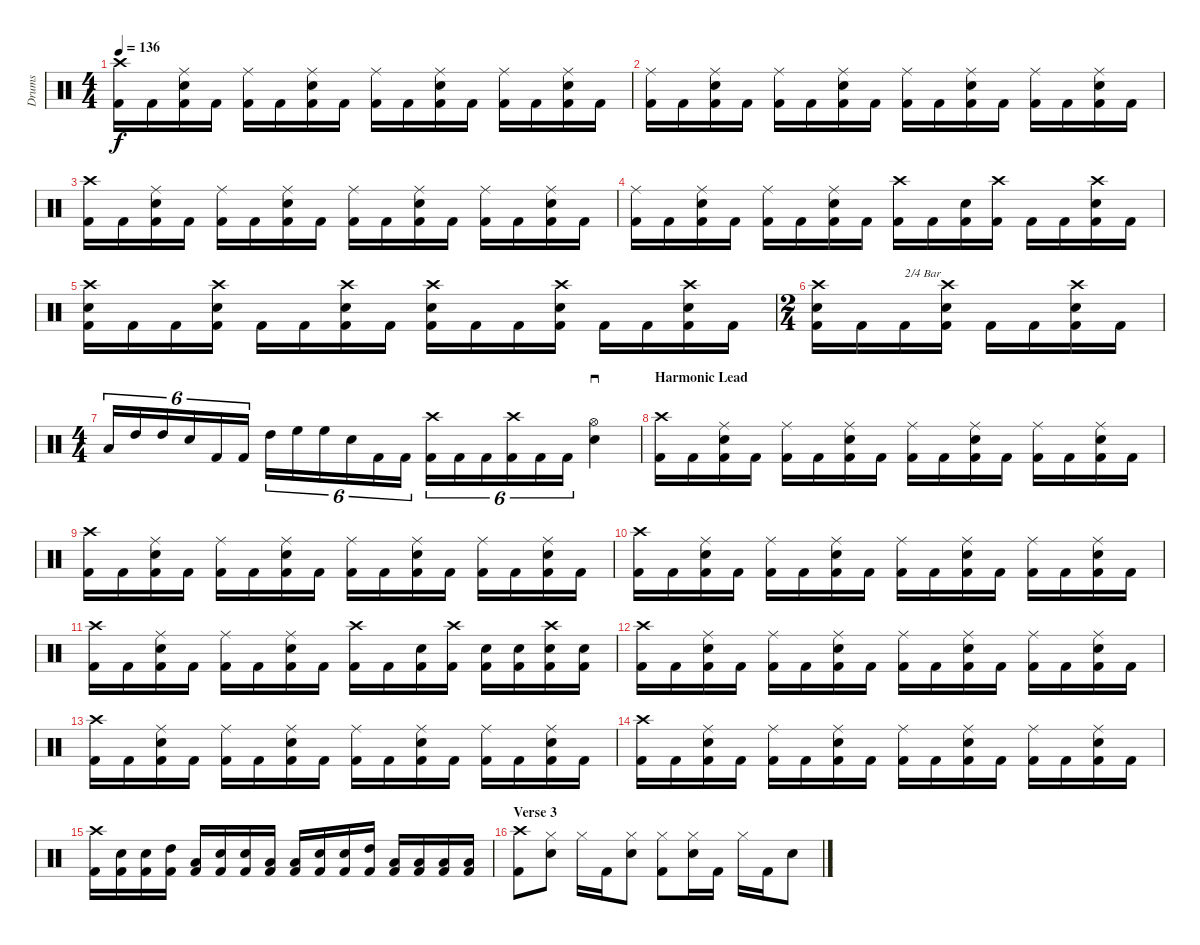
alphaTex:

\track ("Drums" "Drums") {instrument percussion}
\staff {score}
\articulation defaults
\ts (4 4)
\tempo 136
\clef neutral
\ks c
("Crash high (hit)" "Kick (hit) 2").16{dy f} "Kick (hit) 2".16 ("Ride (middle)" "Snare (hit) 2" "Kick (hit) 2").16 "Kick (hit) 2".16 ("Ride (middle)" "Kick (hit) 2").16 "Kick (hit) 2".16 ("Ride (middle)" "Snare (hit) 2" "Kick (hit) 2").16 "Kick (hit) 2".16 ("Ride (middle)" "Kick (hit) 2").16 "Kick (hit) 2".16 ("Ride (middle)" "Snare (hit) 2" "Kick (hit) 2").16 "Kick (hit) 2".16 ("Ride (middle)" "Kick (hit) 2").16 "Kick (hit) 2".16 ("Ride (middle)" "Snare (hit) 2" "Kick (hit) 2").16 "Kick (hit) 2".16 |
("Ride (middle)" "Kick (hit) 2").16 "Kick (hit) 2".16 ("Ride (middle)" "Snare (hit) 2" "Kick (hit) 2").16 "Kick (hit) 2".16 ("Ride (middle)" "Kick (hit) 2").16 "Kick (hit) 2".16 ("Ride (middle)" "Snare (hit) 2" "Kick (hit) 2").16 "Kick (hit) 2".16 ("Ride (middle)" "Kick (hit) 2").16 "Kick (hit) 2".16 ("Ride (middle)" "Snare (hit) 2" "Kick (hit) 2").16 "Kick (hit) 2".16 ("Ride (middle)" "Kick (hit) 2").16 "Kick (hit) 2".16 ("Ride (middle)" "Snare (hit) 2" "Kick (hit) 2").16 "Kick (hit) 2".16 |
("Crash high (hit)" "Kick (hit) 2").16 "Kick (hit) 2".16 ("Ride (middle)" "Snare (hit) 2" "Kick (hit) 2").16 "Kick (hit) 2".16 ("Ride (middle)" "Kick (hit) 2").16 "Kick (hit) 2".16 ("Ride (middle)" "Snare (hit) 2" "Kick (hit) 2").16 "Kick (hit) 2".16 ("Ride (middle)" "Kick (hit) 2").16 "Kick (hit) 2".16 ("Ride (middle)" "Snare (hit) 2" "Kick (hit) 2").16 "Kick (hit) 2".16 ("Ride (middle)" "Kick (hit) 2").16 "Kick (hit) 2".16 ("Ride (middle)" "Snare (hit) 2" "Kick (hit) 2").16 "Kick (hit) 2".16 |
("Ride (middle)" "Kick (hit) 2").16 "Kick (hit) 2".16 ("Ride (middle)" "Snare (hit) 2" "Kick (hit) 2").16 "Kick (hit) 2".16 ("Ride (middle)" "Kick (hit) 2").16 "Kick (hit) 2".16 ("Ride (middle)" "Snare (hit) 2" "Kick (hit) 2").16 "Kick (hit) 2".16 ("Crash high (hit)" "Kick (hit) 2").16 "Kick (hit) 2".16 ("Snare (hit) 2" "Kick (hit) 2").16 ("Crash high (hit)" "Kick (hit) 2").16 "Kick (hit) 2".16 "Kick (hit) 2".16 ("Crash high (hit)" "Snare (hit) 2" "Kick (hit) 2").16 "Kick (hit) 2".16 |
("Crash high (hit)" "Snare (hit) 2" "Kick (hit) 2").16 "Kick (hit) 2".16 "Kick (hit) 2".16 ("Crash high (hit)" "Snare (hit) 2" "Kick (hit) 2").16 "Kick (hit) 2".16 "Kick (hit) 2".16 ("Crash high (hit)" "Snare (hit) 2" "Kick (hit) 2").16 "Kick (hit) 2".16 ("Crash high (hit)" "Snare (hit) 2" "Kick (hit) 2").16 "Kick (hit) 2".16 "Kick (hit) 2".16 ("Crash high (hit)" "Snare (hit) 2" "Kick (hit) 2").16 "Kick (hit) 2".16 "Kick (hit) 2".16 ("Crash high (hit)" "Snare (hit) 2" "Kick (hit) 2").16 "Kick (hit) 2".16 |
\ts (2 4)
("Crash high (hit)" "Snare (hit) 2" "Kick (hit) 2").16 "Kick (hit) 2".16 "Kick (hit) 2".16{txt "2/4 Bar"} ("Crash high (hit)" "Snare (hit) 2" "Kick (hit) 2").16 "Kick (hit) 2".16 "Kick (hit) 2".16 ("Crash high (hit)" "Snare (hit) 2" "Kick (hit) 2").16 "Kick (hit) 2".16 |
\ts (4 4)
"Low Tom (hit)".16{tu (6 4)} "High Tom (hit)".16{tu (6 4)} "High Tom (hit)".16{tu (6 4)} "Snare (hit) 2".16{tu (6 4)} "Kick (hit) 2".16{tu (6 4)} "Kick (hit) 2".16{tu (6 4)} "High Tom (hit)".16{tu (6 4)} "High Floor Tom (hit)".16{tu (6 4)} "High Floor Tom (hit)".16{tu (6 4)} "Snare (hit) 2".16{tu (6 4)} "Kick (hit) 2".16{tu (6 4)} "Kick (hit) 2".16{tu (6 4)} ("Crash high (hit)" "Kick (hit) 2").16{tu (6 4)} "Kick (hit) 2".16{tu (6 4)} "Kick (hit) 2".16{tu (6 4)} ("Crash high (hit)" "Kick (hit) 2").16{tu (6 4)} "Kick (hit) 2".16{tu (6 4)} "Kick (hit) 2".16{tu (6 4)} ("Hi-Hat (open)" "Snare (hit) 2").4{sd} |
\section ("" "Harmonic Lead")
("Crash high (hit)" "Kick (hit) 2").16 "Kick (hit) 2".16 ("Ride (middle)" "Snare (hit) 2" "Kick (hit) 2").16 "Kick (hit) 2".16 ("Ride (middle)" "Kick (hit) 2").16 "Kick (hit) 2".16 ("Ride (middle)" "Snare (hit) 2" "Kick (hit) 2").16 "Kick (hit) 2".16 ("Ride (middle)" "Kick (hit) 2").16 "Kick (hit) 2".16 ("Ride (middle)" "Snare (hit) 2" "Kick (hit) 2").16 "Kick (hit) 2".16 ("Ride (middle)" "Kick (hit) 2").16 "Kick (hit) 2".16 ("Ride (middle)" "Snare (hit) 2" "Kick (hit) 2").16 "Kick (hit) 2".16 |
("Crash high (hit)" "Kick (hit) 2").16 "Kick (hit) 2".16 ("Ride (middle)" "Snare (hit) 2" "Kick (hit) 2").16 "Kick (hit) 2".16 ("Ride (middle)" "Kick (hit) 2").16 "Kick (hit) 2".16 ("Ride (middle)" "Snare (hit) 2" "Kick (hit) 2").16 "Kick (hit) 2".16 ("Ride (middle)" "Kick (hit) 2").16 "Kick (hit) 2".16 ("Ride (middle)" "Snare (hit) 2" "Kick (hit) 2").16 "Kick (hit) 2".16 ("Ride (middle)" "Kick (hit) 2").16 "Kick (hit) 2".16 ("Ride (middle)" "Snare (hit) 2" "Kick (hit) 2").16 "Kick (hit) 2".16 |
("Crash high (hit)" "Kick (hit) 2").16 "Kick (hit) 2".16 ("Ride (middle)" "Snare (hit) 2" "Kick (hit) 2").16 "Kick (hit) 2".16 ("Ride (middle)" "Kick (hit) 2").16 "Kick (hit) 2".16 ("Ride (middle)" "Snare (hit) 2" "Kick (hit) 2").16 "Kick (hit) 2".16 ("Ride (middle)" "Kick (hit) 2").16 "Kick (hit) 2".16 ("Ride (middle)" "Snare (hit) 2" "Kick (hit) 2").16 "Kick (hit) 2".16 ("Ride (middle)" "Kick (hit) 2").16 "Kick (hit) 2".16 ("Ride (middle)" "Snare (hit) 2" "Kick (hit) 2").16 "Kick (hit) 2".16 |
("Crash high (hit)" "Kick (hit) 2").16 "Kick (hit) 2".16 ("Ride (middle)" "Snare (hit) 2" "Kick (hit) 2").16 "Kick (hit) 2".16 ("Ride (middle)" "Kick (hit) 2").16 "Kick (hit) 2".16 ("Ride (middle)" "Snare (hit) 2" "Kick (hit) 2").16 "Kick (hit) 2".16 ("Crash high (hit)" "Kick (hit) 2").16 "Kick (hit) 2".16 ("Snare (hit) 2" "Kick (hit) 2").16 ("Crash high (hit)" "Kick (hit) 2").16 ("Snare (hit) 2" "Kick (hit) 2").16 ("Snare (hit) 2" "Kick (hit) 2").16 ("Crash high (hit)" "Snare (hit) 2" "Kick (hit) 2").16 ("Snare (hit) 2" "Kick (hit) 2").16 |
("Crash high (hit)" "Kick (hit) 2").16 "Kick (hit) 2".16 ("Ride (middle)" "Snare (hit) 2" "Kick (hit) 2").16 "Kick (hit) 2".16 ("Ride (middle)" "Kick (hit) 2").16 "Kick (hit) 2".16 ("Ride (middle)" "Snare (hit) 2" "Kick (hit) 2").16 "Kick (hit) 2".16 ("Ride (middle)" "Kick (hit) 2").16 "Kick (hit) 2".16 ("Ride (middle)" "Snare (hit) 2" "Kick (hit) 2").16 "Kick (hit) 2".16 ("Ride (middle)" "Kick (hit) 2").16 "Kick (hit) 2".16 ("Ride (middle)" "Snare (hit) 2" "Kick (hit) 2").16 "Kick (hit) 2".16 |
("Crash high (hit)" "Kick (hit) 2").16 "Kick (hit) 2".16 ("Ride (middle)" "Snare (hit) 2" "Kick (hit) 2").16 "Kick (hit) 2".16 ("Ride (middle)" "Kick (hit) 2").16 "Kick (hit) 2".16 ("Ride (middle)" "Snare (hit) 2" "Kick (hit) 2").16 "Kick (hit) 2".16 ("Ride (middle)" "Kick (hit) 2").16 "Kick (hit) 2".16 ("Ride (middle)" "Snare (hit) 2" "Kick (hit) 2").16 "Kick (hit) 2".16 ("Ride (middle)" "Kick (hit) 2").16 "Kick (hit) 2".16 ("Ride (middle)" "Snare (hit) 2" "Kick (hit) 2").16 "Kick (hit) 2".16 |
("Crash high (hit)" "Kick (hit) 2").16 "Kick (hit) 2".16 ("Ride (middle)" "Snare (hit) 2" "Kick (hit) 2").16 "Kick (hit) 2".16 ("Ride (middle)" "Kick (hit) 2").16 "Kick (hit) 2".16 ("Ride (middle)" "Snare (hit) 2" "Kick (hit) 2").16 "Kick (hit) 2".16 ("Ride (middle)" "Kick (hit) 2").16 "Kick (hit) 2".16 ("Ride (middle)" "Snare (hit) 2" "Kick (hit) 2").16 "Kick (hit) 2".16 ("Ride (middle)" "Kick (hit) 2").16 "Kick (hit) 2".16 ("Ride (middle)" "Snare (hit) 2" "Kick (hit) 2").16 "Kick (hit) 2".16 |
("Crash high (hit)" "Kick (hit) 2").16 ("Snare (hit) 2" "Kick (hit) 2").16 ("Snare (hit) 2" "Kick (hit) 2").16 ("High Tom (hit)" "Kick (hit) 2").16 ("Low Tom (hit)" "Kick (hit) 2").16 ("Snare (hit) 2" "Kick (hit) 2").16 ("Snare (hit) 2" "Kick (hit) 2").16 ("Low Tom (hit)" "Kick (hit) 2").16 ("Low Floor Tom (hit)" "Kick (hit) 2").16 ("Snare (hit) 2" "Kick (hit) 2").16 ("Snare (hit) 2" "Kick (hit) 2").16 ("High Tom (hit)" "Kick (hit) 2").16 ("Low Tom (hit)" "Kick (hit) 2").16 ("Low Tom (hit)" "Kick (hit) 2").16 ("Low Floor Tom (hit)" "Kick (hit) 2").16 ("Low Floor Tom (hit)" "Kick (hit) 2").16 |
\section ("" "Verse 3")
("Crash high (hit)" "Kick (hit) 2").8 ("Hi-Hat (closed)" "Snare (hit) 2").8 "Hi-Hat (closed)".16 "Kick (hit) 2".16 ("Hi-Hat (closed)" "Snare (hit) 2").8 ("Hi-Hat (closed)" "Kick (hit) 2").8 ("Hi-Hat (closed)" "Snare (hit) 2").16 "Kick (hit) 2".16 "Hi-Hat (closed)".16 "Kick (hit) 2".16 "Snare (hit) 2".8
